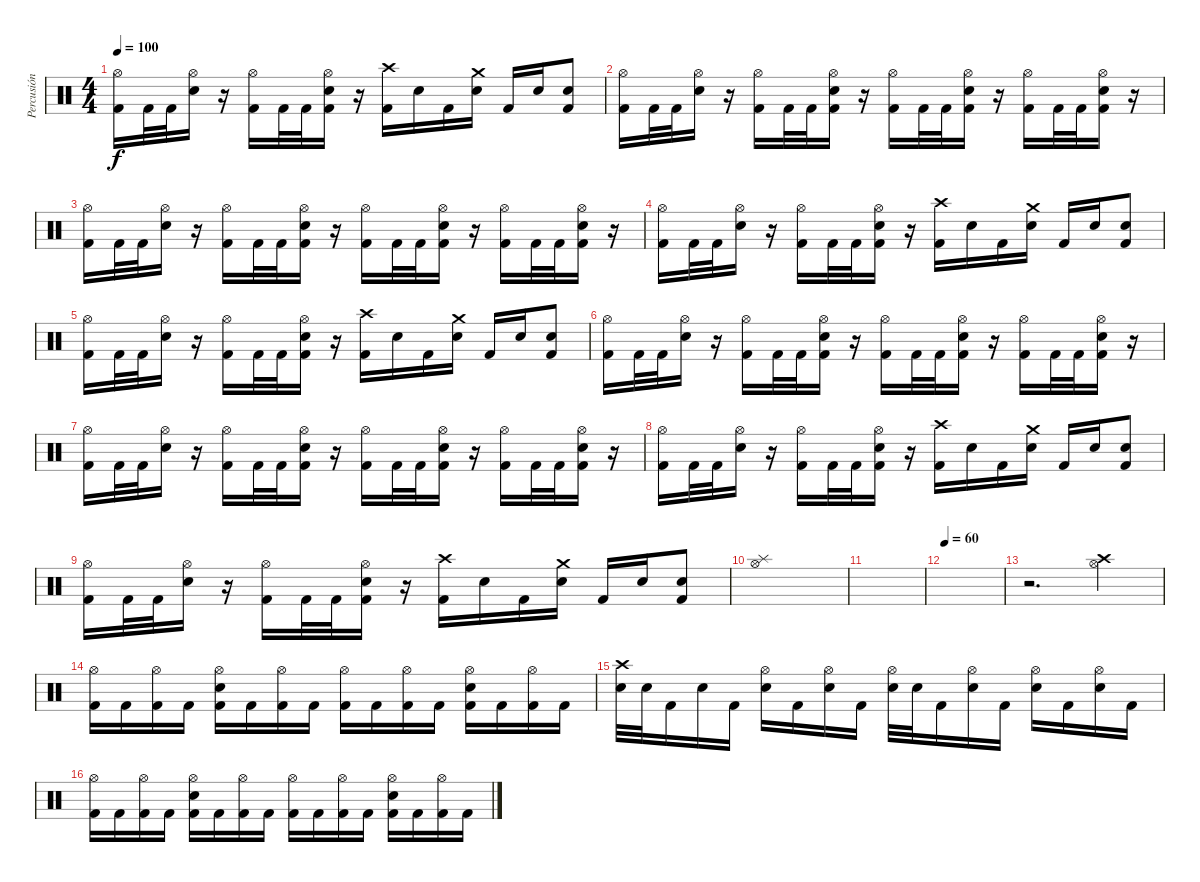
\track ("Percusión" "Percusión") {instrument percussion}
\staff {score}
\articulation defaults
\ts (4 4)
\tempo 100
\clef neutral
\ks c
("Hi-Hat (open)" "Kick (hit) 2").16{dy f} "Kick (hit) 2".32 "Kick (hit) 2".32 ("Hi-Hat (open)" "Electric Snare (hit)").16 r.16 ("Hi-Hat (open)" "Kick (hit) 2").16 "Kick (hit) 2".32 "Kick (hit) 2".32 ("Hi-Hat (open)" "Electric Snare (hit)" "Kick (hit) 2").16 r.16 ("Crash high (hit)" "Kick (hit) 2").16 "Electric Snare (hit)".16 "Kick (hit) 2".16 ("Crash medium (hit)" "Electric Snare (hit)").16 "Kick (hit) 2".16 "Electric Snare (hit)".16 ("Electric Snare (hit)" "Kick (hit) 2").8 |
("Hi-Hat (open)" "Kick (hit) 2").16 "Kick (hit) 2".32 "Kick (hit) 2".32 ("Hi-Hat (open)" "Electric Snare (hit)").16 r.16 ("Hi-Hat (open)" "Kick (hit) 2").16 "Kick (hit) 2".32 "Kick (hit) 2".32 ("Hi-Hat (open)" "Electric Snare (hit)" "Kick (hit) 2").16 r.16 ("Hi-Hat (open)" "Kick (hit) 2").16 "Kick (hit) 2".32 "Kick (hit) 2".32 ("Hi-Hat (open)" "Electric Snare (hit)" "Kick (hit) 2").16 r.16 ("Hi-Hat (open)" "Kick (hit) 2").16 "Kick (hit) 2".32 "Kick (hit) 2".32 ("Hi-Hat (open)" "Electric Snare (hit)" "Kick (hit) 2").16 r.16 |
("Hi-Hat (open)" "Kick (hit) 2").16 "Kick (hit) 2".32 "Kick (hit) 2".32 ("Hi-Hat (open)" "Electric Snare (hit)").16 r.16 ("Hi-Hat (open)" "Kick (hit) 2").16 "Kick (hit) 2".32 "Kick (hit) 2".32 ("Hi-Hat (open)" "Electric Snare (hit)" "Kick (hit) 2").16 r.16 ("Hi-Hat (open)" "Kick (hit) 2").16 "Kick (hit) 2".32 "Kick (hit) 2".32 ("Hi-Hat (open)" "Electric Snare (hit)" "Kick (hit) 2").16 r.16 ("Hi-Hat (open)" "Kick (hit) 2").16 "Kick (hit) 2".32 "Kick (hit) 2".32 ("Hi-Hat (open)" "Electric Snare (hit)" "Kick (hit) 2").16 r.16 |
("Hi-Hat (open)" "Kick (hit) 2").16 "Kick (hit) 2".32 "Kick (hit) 2".32 ("Hi-Hat (open)" "Electric Snare (hit)").16 r.16 ("Hi-Hat (open)" "Kick (hit) 2").16 "Kick (hit) 2".32 "Kick (hit) 2".32 ("Hi-Hat (open)" "Electric Snare (hit)" "Kick (hit) 2").16 r.16 ("Crash high (hit)" "Kick (hit) 2").16 "Electric Snare (hit)".16 "Kick (hit) 2".16 ("Crash medium (hit)" "Electric Snare (hit)").16 "Kick (hit) 2".16 "Electric Snare (hit)".16 ("Electric Snare (hit)" "Kick (hit) 2").8 |
("Hi-Hat (open)" "Kick (hit) 2").16 "Kick (hit) 2".32 "Kick (hit) 2".32 ("Hi-Hat (open)" "Electric Snare (hit)").16 r.16 ("Hi-Hat (open)" "Kick (hit) 2").16 "Kick (hit) 2".32 "Kick (hit) 2".32 ("Hi-Hat (open)" "Electric Snare (hit)" "Kick (hit) 2").16 r.16 ("Crash high (hit)" "Kick (hit) 2").16 "Electric Snare (hit)".16 "Kick (hit) 2".16 ("Crash medium (hit)" "Electric Snare (hit)").16 "Kick (hit) 2".16 "Electric Snare (hit)".16 ("Electric Snare (hit)" "Kick (hit) 2").8 |
("Hi-Hat (open)" "Kick (hit) 2").16 "Kick (hit) 2".32 "Kick (hit) 2".32 ("Hi-Hat (open)" "Electric Snare (hit)").16 r.16 ("Hi-Hat (open)" "Kick (hit) 2").16 "Kick (hit) 2".32 "Kick (hit) 2".32 ("Hi-Hat (open)" "Electric Snare (hit)" "Kick (hit) 2").16 r.16 ("Hi-Hat (open)" "Kick (hit) 2").16 "Kick (hit) 2".32 "Kick (hit) 2".32 ("Hi-Hat (open)" "Electric Snare (hit)" "Kick (hit) 2").16 r.16 ("Hi-Hat (open)" "Kick (hit) 2").16 "Kick (hit) 2".32 "Kick (hit) 2".32 ("Hi-Hat (open)" "Electric Snare (hit)" "Kick (hit) 2").16 r.16 |
("Hi-Hat (open)" "Kick (hit) 2").16 "Kick (hit) 2".32 "Kick (hit) 2".32 ("Hi-Hat (open)" "Electric Snare (hit)").16 r.16 ("Hi-Hat (open)" "Kick (hit) 2").16 "Kick (hit) 2".32 "Kick (hit) 2".32 ("Hi-Hat (open)" "Electric Snare (hit)" "Kick (hit) 2").16 r.16 ("Hi-Hat (open)" "Kick (hit) 2").16 "Kick (hit) 2".32 "Kick (hit) 2".32 ("Hi-Hat (open)" "Electric Snare (hit)" "Kick (hit) 2").16 r.16 ("Hi-Hat (open)" "Kick (hit) 2").16 "Kick (hit) 2".32 "Kick (hit) 2".32 ("Hi-Hat (open)" "Electric Snare (hit)" "Kick (hit) 2").16 r.16 |
("Hi-Hat (open)" "Kick (hit) 2").16 "Kick (hit) 2".32 "Kick (hit) 2".32 ("Hi-Hat (open)" "Electric Snare (hit)").16 r.16 ("Hi-Hat (open)" "Kick (hit) 2").16 "Kick (hit) 2".32 "Kick (hit) 2".32 ("Hi-Hat (open)" "Electric Snare (hit)" "Kick (hit) 2").16 r.16 ("Crash high (hit)" "Kick (hit) 2").16 "Electric Snare (hit)".16 "Kick (hit) 2".16 ("Crash medium (hit)" "Electric Snare (hit)").16 "Kick (hit) 2".16 "Electric Snare (hit)".16 ("Electric Snare (hit)" "Kick (hit) 2").8 |
("Hi-Hat (open)" "Kick (hit) 2").16 "Kick (hit) 2".32 "Kick (hit) 2".32 ("Hi-Hat (open)" "Electric Snare (hit)").16 r.16 ("Hi-Hat (open)" "Kick (hit) 2").16 "Kick (hit) 2".32 "Kick (hit) 2".32 ("Hi-Hat (open)" "Electric Snare (hit)" "Kick (hit) 2").16 r.16 ("Crash high (hit)" "Kick (hit) 2").16 "Electric Snare (hit)".16 "Kick (hit) 2".16 ("Crash medium (hit)" "Electric Snare (hit)").16 "Kick (hit) 2".16 "Electric Snare (hit)".16 ("Electric Snare (hit)" "Kick (hit) 2").8 |
("Hi-Hat (open)" "Splash (hit)").1 |
|
\tempo 60
|
r.2{d} ("Crash high (hit)" "Hi-Hat (open)").4 |
("Hi-Hat (open)" "Kick (hit) 2").16 "Kick (hit) 2".16 ("Hi-Hat (open)" "Kick (hit) 2").16 "Kick (hit) 2".16 ("Hi-Hat (open)" "Electric Snare (hit)" "Kick (hit) 2").16 "Kick (hit) 2".16 ("Hi-Hat (open)" "Kick (hit) 2").16 "Kick (hit) 2".16 ("Hi-Hat (open)" "Kick (hit) 2").16 "Kick (hit) 2".16 ("Hi-Hat (open)" "Kick (hit) 2").16 "Kick (hit) 2".16 ("Hi-Hat (open)" "Electric Snare (hit)" "Kick (hit) 2").16 "Kick (hit) 2".16 ("Hi-Hat (open)" "Kick (hit) 2").16 "Kick (hit) 2".16 |
("Crash high (hit)" "Electric Snare (hit)").32 "Electric Snare (hit)".32 "Kick (hit) 2".16 "Electric Snare (hit)".16 "Kick (hit) 2".16 ("Hi-Hat (open)" "Electric Snare (hit)").16 "Kick (hit) 2".16 ("Hi-Hat (open)" "Electric Snare (hit)").16 "Kick (hit) 2".16 ("Hi-Hat (open)" "Electric Snare (hit)").32 "Electric Snare (hit)".32 "Kick (hit) 2".16 ("Hi-Hat (open)" "Electric Snare (hit)").16 "Kick (hit) 2".16 ("Hi-Hat (open)" "Electric Snare (hit)").16 "Kick (hit) 2".16 ("Hi-Hat (open)" "Electric Snare (hit)").16 "Kick (hit) 2".16 |
("Hi-Hat (open)" "Kick (hit) 2").16 "Kick (hit) 2".16 ("Hi-Hat (open)" "Kick (hit) 2").16 "Kick (hit) 2".16 ("Hi-Hat (open)" "Electric Snare (hit)" "Kick (hit) 2").16 "Kick (hit) 2".16 ("Hi-Hat (open)" "Kick (hit) 2").16 "Kick (hit) 2".16 ("Hi-Hat (open)" "Kick (hit) 2").16 "Kick (hit) 2".16 ("Hi-Hat (open)" "Kick (hit) 2").16 "Kick (hit) 2".16 ("Hi-Hat (open)" "Electric Snare (hit)" "Kick (hit) 2").16 "Kick (hit) 2".16 ("Hi-Hat (open)" "Kick (hit) 2").16 "Kick (hit) 2".16
